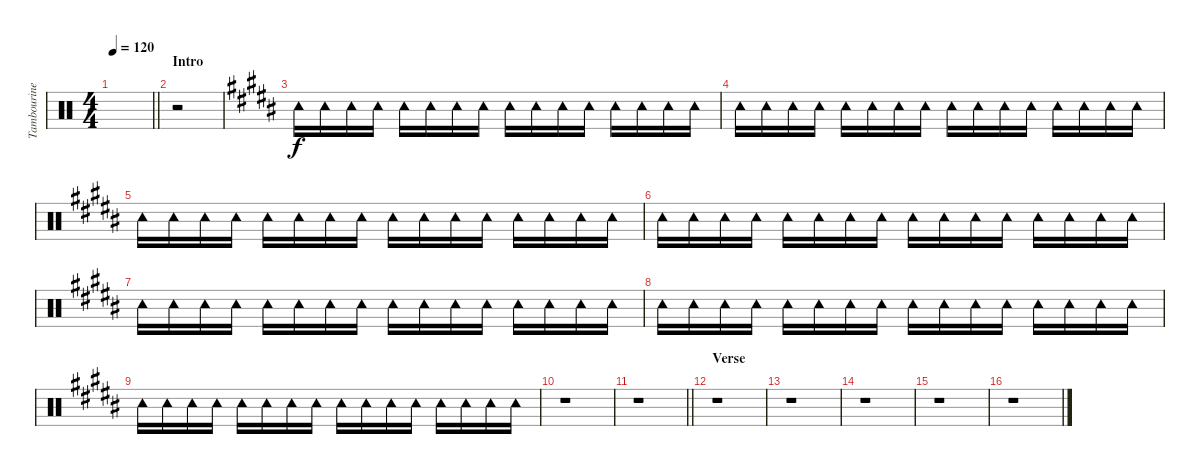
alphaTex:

\track ("Tambourine" "Tambourine") {instrument percussion}
\staff {score}
\articulation defaults
\ts (4 4)
\tempo 120
\clef neutral
\barLineRight lightlight
\ks c
|
\section ("" "Intro")
r.2 |
\ks b "Tambourine (hit)".16 "Tambourine (hit)".16 "Tambourine (hit)".16 "Tambourine (hit)".16 "Tambourine (hit)".16 "Tambourine (hit)".16 "Tambourine (hit)".16 "Tambourine (hit)".16 "Tambourine (hit)".16 "Tambourine (hit)".16 "Tambourine (hit)".16 "Tambourine (hit)".16 "Tambourine (hit)".16 "Tambourine (hit)".16 "Tambourine (hit)".16 "Tambourine (hit)".16
|
"Tambourine (hit)".16 "Tambourine (hit)".16 "Tambourine (hit)".16 "Tambourine (hit)".16 "Tambourine (hit)".16 "Tambourine (hit)".16 "Tambourine (hit)".16 "Tambourine (hit)".16 "Tambourine (hit)".16 "Tambourine (hit)".16 "Tambourine (hit)".16 "Tambourine (hit)".16 "Tambourine (hit)".16 "Tambourine (hit)".16 "Tambourine (hit)".16 "Tambourine (hit)".16 |
"Tambourine (hit)".16 "Tambourine (hit)".16 "Tambourine (hit)".16 "Tambourine (hit)".16 "Tambourine (hit)".16 "Tambourine (hit)".16 "Tambourine (hit)".16 "Tambourine (hit)".16 "Tambourine (hit)".16 "Tambourine (hit)".16 "Tambourine (hit)".16 "Tambourine (hit)".16 "Tambourine (hit)".16 "Tambourine (hit)".16 "Tambourine (hit)".16 "Tambourine (hit)".16 |
"Tambourine (hit)".16 "Tambourine (hit)".16 "Tambourine (hit)".16 "Tambourine (hit)".16 "Tambourine (hit)".16 "Tambourine (hit)".16 "Tambourine (hit)".16 "Tambourine (hit)".16 "Tambourine (hit)".16 "Tambourine (hit)".16 "Tambourine (hit)".16 "Tambourine (hit)".16 "Tambourine (hit)".16 "Tambourine (hit)".16 "Tambourine (hit)".16 "Tambourine (hit)".16 |
"Tambourine (hit)".16 "Tambourine (hit)".16 "Tambourine (hit)".16 "Tambourine (hit)".16 "Tambourine (hit)".16 "Tambourine (hit)".16 "Tambourine (hit)".16 "Tambourine (hit)".16 "Tambourine (hit)".16 "Tambourine (hit)".16 "Tambourine (hit)".16 "Tambourine (hit)".16 "Tambourine (hit)".16 "Tambourine (hit)".16 "Tambourine (hit)".16 "Tambourine (hit)".16 |
"Tambourine (hit)".16 "Tambourine (hit)".16 "Tambourine (hit)".16 "Tambourine (hit)".16 "Tambourine (hit)".16 "Tambourine (hit)".16 "Tambourine (hit)".16 "Tambourine (hit)".16 "Tambourine (hit)".16 "Tambourine (hit)".16 "Tambourine (hit)".16 "Tambourine (hit)".16 "Tambourine (hit)".16 "Tambourine (hit)".16 "Tambourine (hit)".16 "Tambourine (hit)".16 |
"Tambourine (hit)".16 "Tambourine (hit)".16 "Tambourine (hit)".16 "Tambourine (hit)".16 "Tambourine (hit)".16 "Tambourine (hit)".16 "Tambourine (hit)".16 "Tambourine (hit)".16 "Tambourine (hit)".16 "Tambourine (hit)".16 "Tambourine (hit)".16 "Tambourine (hit)".16 "Tambourine (hit)".16 "Tambourine (hit)".16 "Tambourine (hit)".16 "Tambourine (hit)".16 |
r.1 |
\barLineRight lightlight
r.1 |
\section ("" "Verse")
r.1 |
r.1 |
r.1 |
r.1 |
r.1
